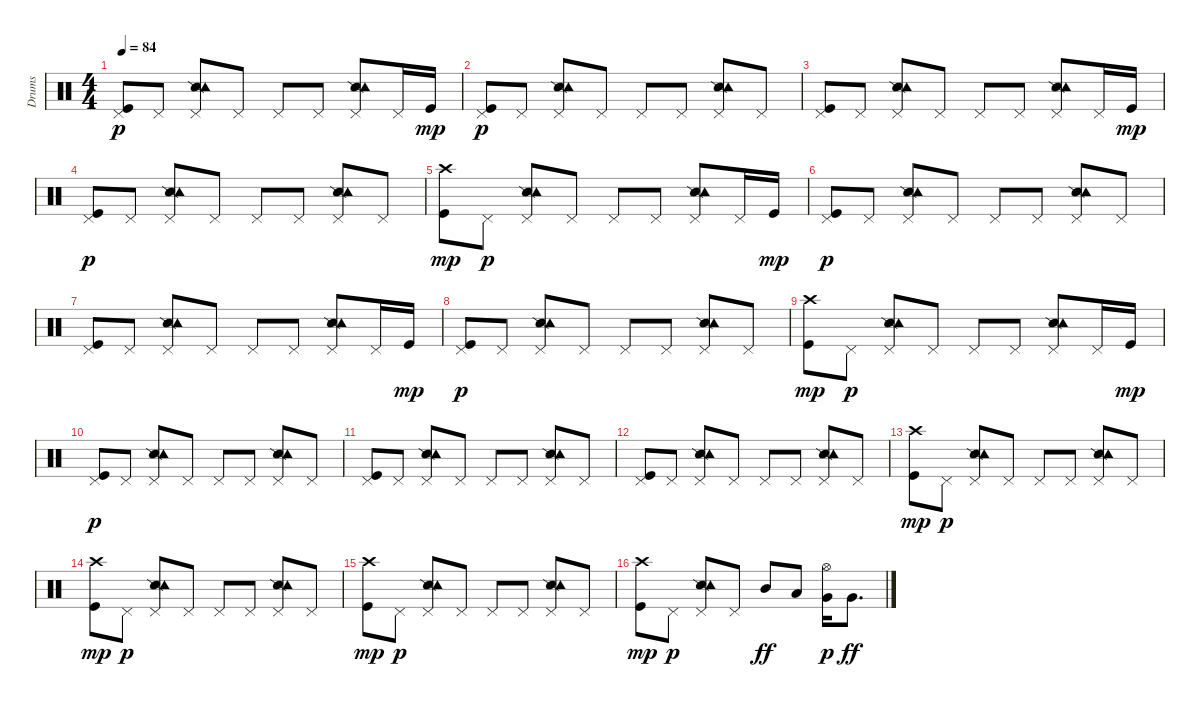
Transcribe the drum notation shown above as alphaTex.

\track ("Drums" "Drums") {instrument percussion}
\staff {score}
\articulation defaults
\ts (4 4)
\tempo 84
\clef neutral
\ks c
("Kick (hit)" "Pedal Hi-Hat (hit)").8{dy p} "Pedal Hi-Hat (hit)".8 ("Snare (side stick) 2" "Pedal Hi-Hat (hit)" "Tambourine (hit)").8 "Pedal Hi-Hat (hit)".8 "Pedal Hi-Hat (hit)".8 "Pedal Hi-Hat (hit)".8 ("Snare (side stick) 2" "Pedal Hi-Hat (hit)" "Tambourine (hit)").8 "Pedal Hi-Hat (hit)".16 "Kick (hit)".16{dy mp} |
("Kick (hit)" "Pedal Hi-Hat (hit)").8{dy p} "Pedal Hi-Hat (hit)".8 ("Snare (side stick) 2" "Pedal Hi-Hat (hit)" "Tambourine (hit)").8 "Pedal Hi-Hat (hit)".8 "Pedal Hi-Hat (hit)".8 "Pedal Hi-Hat (hit)".8 ("Snare (side stick) 2" "Pedal Hi-Hat (hit)" "Tambourine (hit)").8 "Pedal Hi-Hat (hit)".8 |
("Kick (hit)" "Pedal Hi-Hat (hit)").8 "Pedal Hi-Hat (hit)".8 ("Snare (side stick) 2" "Pedal Hi-Hat (hit)" "Tambourine (hit)").8 "Pedal Hi-Hat (hit)".8 "Pedal Hi-Hat (hit)".8 "Pedal Hi-Hat (hit)".8 ("Snare (side stick) 2" "Pedal Hi-Hat (hit)" "Tambourine (hit)").8 "Pedal Hi-Hat (hit)".16 "Kick (hit)".16{dy mp} |
("Kick (hit)" "Pedal Hi-Hat (hit)").8{dy p} "Pedal Hi-Hat (hit)".8 ("Snare (side stick) 2" "Pedal Hi-Hat (hit)" "Tambourine (hit)").8 "Pedal Hi-Hat (hit)".8 "Pedal Hi-Hat (hit)".8 "Pedal Hi-Hat (hit)".8 ("Snare (side stick) 2" "Pedal Hi-Hat (hit)" "Tambourine (hit)").8 "Pedal Hi-Hat (hit)".8 |
("Kick (hit)" "Crash high (hit)").8{dy mp} "Pedal Hi-Hat (hit)".8{dy p} ("Snare (side stick) 2" "Pedal Hi-Hat (hit)" "Tambourine (hit)").8 "Pedal Hi-Hat (hit)".8 "Pedal Hi-Hat (hit)".8 "Pedal Hi-Hat (hit)".8 ("Snare (side stick) 2" "Pedal Hi-Hat (hit)" "Tambourine (hit)").8 "Pedal Hi-Hat (hit)".16 "Kick (hit)".16{dy mp} |
("Kick (hit)" "Pedal Hi-Hat (hit)").8{dy p} "Pedal Hi-Hat (hit)".8 ("Snare (side stick) 2" "Pedal Hi-Hat (hit)" "Tambourine (hit)").8 "Pedal Hi-Hat (hit)".8 "Pedal Hi-Hat (hit)".8 "Pedal Hi-Hat (hit)".8 ("Snare (side stick) 2" "Pedal Hi-Hat (hit)" "Tambourine (hit)").8 "Pedal Hi-Hat (hit)".8 |
("Kick (hit)" "Pedal Hi-Hat (hit)").8 "Pedal Hi-Hat (hit)".8 ("Snare (side stick) 2" "Pedal Hi-Hat (hit)" "Tambourine (hit)").8 "Pedal Hi-Hat (hit)".8 "Pedal Hi-Hat (hit)".8 "Pedal Hi-Hat (hit)".8 ("Snare (side stick) 2" "Pedal Hi-Hat (hit)" "Tambourine (hit)").8 "Pedal Hi-Hat (hit)".16 "Kick (hit)".16{dy mp} |
("Kick (hit)" "Pedal Hi-Hat (hit)").8{dy p} "Pedal Hi-Hat (hit)".8 ("Snare (side stick) 2" "Pedal Hi-Hat (hit)" "Tambourine (hit)").8 "Pedal Hi-Hat (hit)".8 "Pedal Hi-Hat (hit)".8 "Pedal Hi-Hat (hit)".8 ("Snare (side stick) 2" "Pedal Hi-Hat (hit)" "Tambourine (hit)").8 "Pedal Hi-Hat (hit)".8 |
("Kick (hit)" "Crash high (hit)").8{dy mp} "Pedal Hi-Hat (hit)".8{dy p} ("Snare (side stick) 2" "Pedal Hi-Hat (hit)" "Tambourine (hit)").8 "Pedal Hi-Hat (hit)".8 "Pedal Hi-Hat (hit)".8 "Pedal Hi-Hat (hit)".8 ("Snare (side stick) 2" "Pedal Hi-Hat (hit)" "Tambourine (hit)").8 "Pedal Hi-Hat (hit)".16 "Kick (hit)".16{dy mp} |
("Kick (hit)" "Pedal Hi-Hat (hit)").8{dy p} "Pedal Hi-Hat (hit)".8 ("Snare (side stick) 2" "Pedal Hi-Hat (hit)" "Tambourine (hit)").8 "Pedal Hi-Hat (hit)".8 "Pedal Hi-Hat (hit)".8 "Pedal Hi-Hat (hit)".8 ("Snare (side stick) 2" "Pedal Hi-Hat (hit)" "Tambourine (hit)").8 "Pedal Hi-Hat (hit)".8 |
("Kick (hit)" "Pedal Hi-Hat (hit)").8 "Pedal Hi-Hat (hit)".8 ("Snare (side stick) 2" "Pedal Hi-Hat (hit)" "Tambourine (hit)").8 "Pedal Hi-Hat (hit)".8 "Pedal Hi-Hat (hit)".8 "Pedal Hi-Hat (hit)".8 ("Snare (side stick) 2" "Pedal Hi-Hat (hit)" "Tambourine (hit)").8 "Pedal Hi-Hat (hit)".8 |
("Kick (hit)" "Pedal Hi-Hat (hit)").8 "Pedal Hi-Hat (hit)".8 ("Snare (side stick) 2" "Pedal Hi-Hat (hit)" "Tambourine (hit)").8 "Pedal Hi-Hat (hit)".8 "Pedal Hi-Hat (hit)".8 "Pedal Hi-Hat (hit)".8 ("Snare (side stick) 2" "Pedal Hi-Hat (hit)" "Tambourine (hit)").8 "Pedal Hi-Hat (hit)".8 |
("Kick (hit)" "Crash high (hit)").8{dy mp} "Pedal Hi-Hat (hit)".8{dy p} ("Snare (side stick) 2" "Pedal Hi-Hat (hit)" "Tambourine (hit)").8 "Pedal Hi-Hat (hit)".8 "Pedal Hi-Hat (hit)".8 "Pedal Hi-Hat (hit)".8 ("Snare (side stick) 2" "Pedal Hi-Hat (hit)" "Tambourine (hit)").8 "Pedal Hi-Hat (hit)".8 |
("Kick (hit)" "Crash high (hit)").8{dy mp} "Pedal Hi-Hat (hit)".8{dy p} ("Snare (side stick) 2" "Pedal Hi-Hat (hit)" "Tambourine (hit)").8 "Pedal Hi-Hat (hit)".8 "Pedal Hi-Hat (hit)".8 "Pedal Hi-Hat (hit)".8 ("Snare (side stick) 2" "Pedal Hi-Hat (hit)" "Tambourine (hit)").8 "Pedal Hi-Hat (hit)".8 |
("Kick (hit)" "Crash high (hit)").8{dy mp} "Pedal Hi-Hat (hit)".8{dy p} ("Snare (side stick) 2" "Pedal Hi-Hat (hit)" "Tambourine (hit)").8 "Pedal Hi-Hat (hit)".8 "Pedal Hi-Hat (hit)".8 "Pedal Hi-Hat (hit)".8 ("Snare (side stick) 2" "Pedal Hi-Hat (hit)" "Tambourine (hit)").8 "Pedal Hi-Hat (hit)".8 |
("Kick (hit)" "Crash high (hit)").8{dy mp} "Pedal Hi-Hat (hit)".8{dy p} ("Snare (side stick) 2" "Pedal Hi-Hat (hit)" "Tambourine (hit)").8 "Pedal Hi-Hat (hit)".8 "Mid Tom (hit)".8{dy ff} "Low Tom (hit)".8 ("Very Low Tom (hit)" "Hi-Hat (open)").16{dy p} "Very Low Tom (hit)".8{d dy ff}
